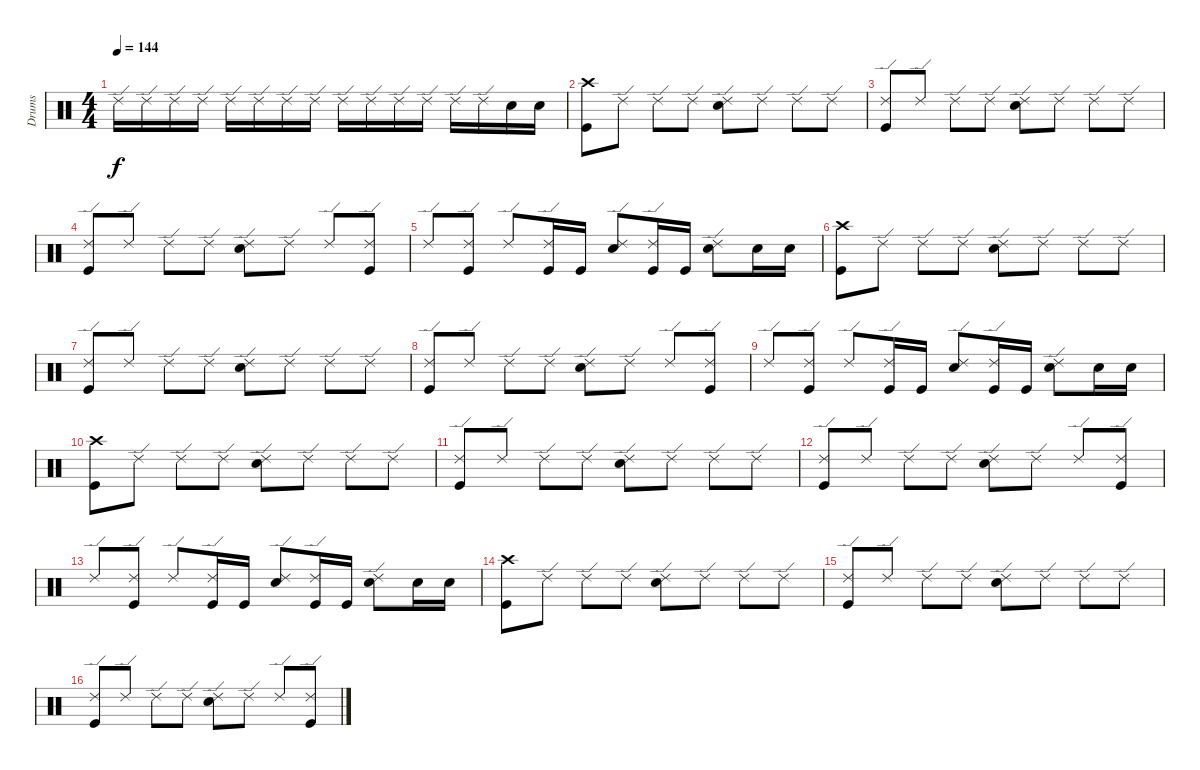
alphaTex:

\track ("Drums" "Drums") {instrument percussion}
\staff {score}
\articulation defaults
\ts (4 4)
\tempo 144
\clef neutral
\ks c "Ride (edge) 2".16{dy f} "Ride (edge) 2".16 "Ride (edge) 2".16 "Ride (edge) 2".16 "Ride (edge) 2".16 "Ride (edge) 2".16 "Ride (edge) 2".16 "Ride (edge) 2".16 "Ride (edge) 2".16 "Ride (edge) 2".16 "Ride (edge) 2".16 "Ride (edge) 2".16 "Ride (edge) 2".16 "Ride (edge) 2".16 "Snare (hit) 2".16 "Snare (hit) 2".16
|
("Crash high (hit)" "Kick (hit)").8 "Ride (edge) 2".8 "Ride (edge) 2".8 "Ride (edge) 2".8 ("Ride (edge) 2" "Snare (hit) 2").8 "Ride (edge) 2".8 "Ride (edge) 2".8 "Ride (edge) 2".8 |
("Ride (edge) 2" "Kick (hit)").8 "Ride (edge) 2".8 "Ride (edge) 2".8 "Ride (edge) 2".8 ("Ride (edge) 2" "Snare (hit) 2").8 "Ride (edge) 2".8 "Ride (edge) 2".8 "Ride (edge) 2".8 |
("Ride (edge) 2" "Kick (hit)").8 "Ride (edge) 2".8 "Ride (edge) 2".8 "Ride (edge) 2".8 ("Ride (edge) 2" "Snare (hit) 2").8 "Ride (edge) 2".8 "Ride (edge) 2".8 ("Ride (edge) 2" "Kick (hit)").8 |
"Ride (edge) 2".8 ("Ride (edge) 2" "Kick (hit)").8 "Ride (edge) 2".8 ("Ride (edge) 2" "Kick (hit)").16 "Kick (hit)".16 ("Ride (edge) 2" "Snare (hit) 2").8 ("Ride (edge) 2" "Kick (hit)").16 "Kick (hit)".16 ("Ride (edge) 2" "Snare (hit) 2").8 "Snare (hit) 2".16 "Snare (hit) 2".16 |
("Crash high (hit)" "Kick (hit)").8 "Ride (edge) 2".8 "Ride (edge) 2".8 "Ride (edge) 2".8 ("Ride (edge) 2" "Snare (hit) 2").8 "Ride (edge) 2".8 "Ride (edge) 2".8 "Ride (edge) 2".8 |
("Ride (edge) 2" "Kick (hit)").8 "Ride (edge) 2".8 "Ride (edge) 2".8 "Ride (edge) 2".8 ("Ride (edge) 2" "Snare (hit) 2").8 "Ride (edge) 2".8 "Ride (edge) 2".8 "Ride (edge) 2".8 |
("Ride (edge) 2" "Kick (hit)").8 "Ride (edge) 2".8 "Ride (edge) 2".8 "Ride (edge) 2".8 ("Ride (edge) 2" "Snare (hit) 2").8 "Ride (edge) 2".8 "Ride (edge) 2".8 ("Ride (edge) 2" "Kick (hit)").8 |
"Ride (edge) 2".8 ("Ride (edge) 2" "Kick (hit)").8 "Ride (edge) 2".8 ("Ride (edge) 2" "Kick (hit)").16 "Kick (hit)".16 ("Ride (edge) 2" "Snare (hit) 2").8 ("Ride (edge) 2" "Kick (hit)").16 "Kick (hit)".16 ("Ride (edge) 2" "Snare (hit) 2").8 "Snare (hit) 2".16 "Snare (hit) 2".16 |
("Crash high (hit)" "Kick (hit)").8 "Ride (edge) 2".8 "Ride (edge) 2".8 "Ride (edge) 2".8 ("Ride (edge) 2" "Snare (hit) 2").8 "Ride (edge) 2".8 "Ride (edge) 2".8 "Ride (edge) 2".8 |
("Ride (edge) 2" "Kick (hit)").8 "Ride (edge) 2".8 "Ride (edge) 2".8 "Ride (edge) 2".8 ("Ride (edge) 2" "Snare (hit) 2").8 "Ride (edge) 2".8 "Ride (edge) 2".8 "Ride (edge) 2".8 |
("Ride (edge) 2" "Kick (hit)").8 "Ride (edge) 2".8 "Ride (edge) 2".8 "Ride (edge) 2".8 ("Ride (edge) 2" "Snare (hit) 2").8 "Ride (edge) 2".8 "Ride (edge) 2".8 ("Ride (edge) 2" "Kick (hit)").8 |
"Ride (edge) 2".8 ("Ride (edge) 2" "Kick (hit)").8 "Ride (edge) 2".8 ("Ride (edge) 2" "Kick (hit)").16 "Kick (hit)".16 ("Ride (edge) 2" "Snare (hit) 2").8 ("Ride (edge) 2" "Kick (hit)").16 "Kick (hit)".16 ("Ride (edge) 2" "Snare (hit) 2").8 "Snare (hit) 2".16 "Snare (hit) 2".16 |
("Crash high (hit)" "Kick (hit)").8 "Ride (edge) 2".8 "Ride (edge) 2".8 "Ride (edge) 2".8 ("Ride (edge) 2" "Snare (hit) 2").8 "Ride (edge) 2".8 "Ride (edge) 2".8 "Ride (edge) 2".8 |
("Ride (edge) 2" "Kick (hit)").8 "Ride (edge) 2".8 "Ride (edge) 2".8 "Ride (edge) 2".8 ("Ride (edge) 2" "Snare (hit) 2").8 "Ride (edge) 2".8 "Ride (edge) 2".8 "Ride (edge) 2".8 |
("Ride (edge) 2" "Kick (hit)").8 "Ride (edge) 2".8 "Ride (edge) 2".8 "Ride (edge) 2".8 ("Ride (edge) 2" "Snare (hit) 2").8 "Ride (edge) 2".8 "Ride (edge) 2".8 ("Ride (edge) 2" "Kick (hit)").8
